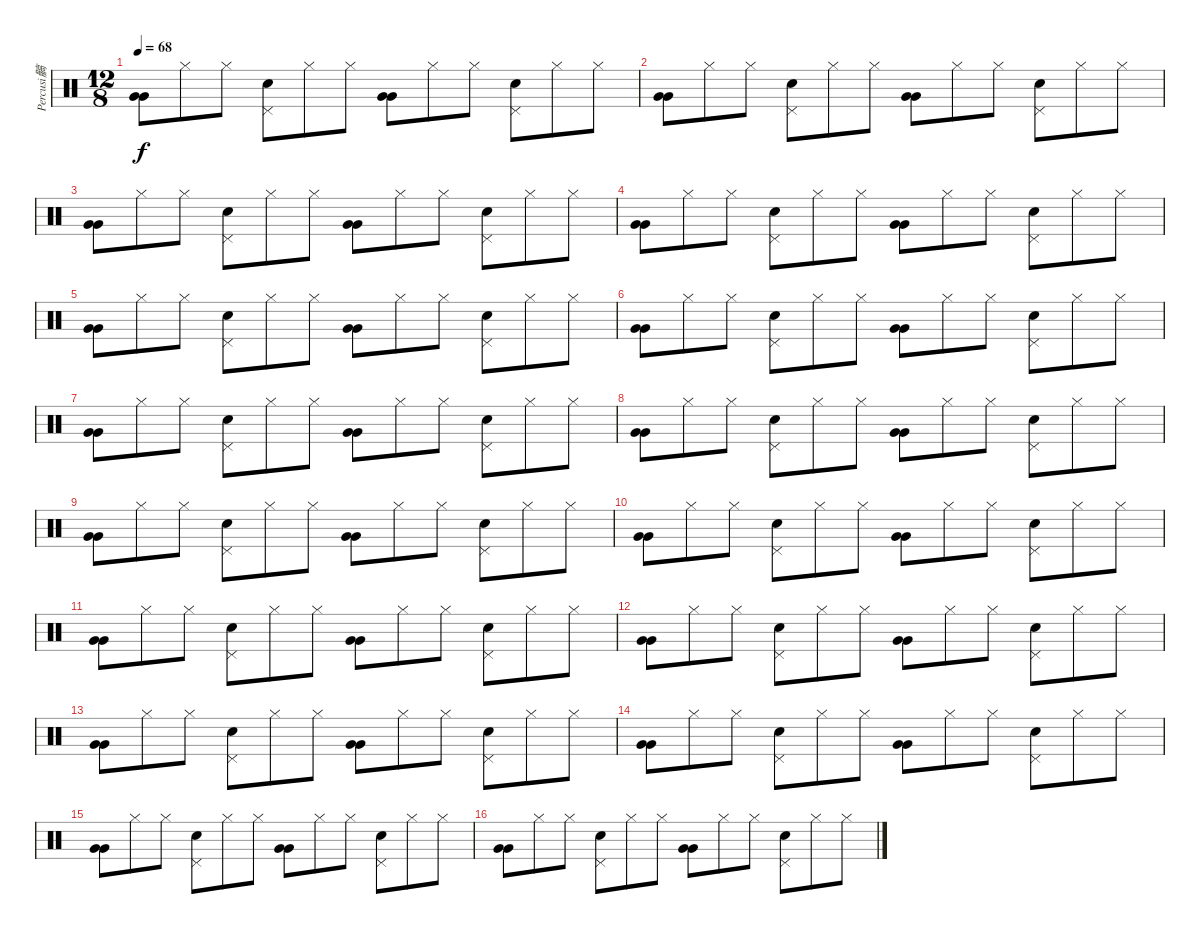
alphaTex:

\track ("Percusi髇" "Percusi髇") {instrument percussion}
\staff {score}
\articulation defaults
\ts (12 8)
\tempo 68
\clef neutral
\ks c
("Very Low Tom (hit)" "Very Low Tom (hit)").8{dy f} "Hi-Hat (closed)".8 "Hi-Hat (closed)".8 ("Pedal Hi-Hat (hit)" "Electric Snare (hit)").8 "Hi-Hat (closed)".8 "Hi-Hat (closed)".8 ("Very Low Tom (hit)" "Very Low Tom (hit)").8 "Hi-Hat (closed)".8 "Hi-Hat (closed)".8 ("Pedal Hi-Hat (hit)" "Electric Snare (hit)").8 "Hi-Hat (closed)".8 "Hi-Hat (closed)".8 |
("Very Low Tom (hit)" "Very Low Tom (hit)").8 "Hi-Hat (closed)".8 "Hi-Hat (closed)".8 ("Pedal Hi-Hat (hit)" "Electric Snare (hit)").8 "Hi-Hat (closed)".8 "Hi-Hat (closed)".8 ("Very Low Tom (hit)" "Very Low Tom (hit)").8 "Hi-Hat (closed)".8 "Hi-Hat (closed)".8 ("Pedal Hi-Hat (hit)" "Electric Snare (hit)").8 "Hi-Hat (closed)".8 "Hi-Hat (closed)".8 |
("Very Low Tom (hit)" "Very Low Tom (hit)").8 "Hi-Hat (closed)".8 "Hi-Hat (closed)".8 ("Pedal Hi-Hat (hit)" "Electric Snare (hit)").8 "Hi-Hat (closed)".8 "Hi-Hat (closed)".8 ("Very Low Tom (hit)" "Very Low Tom (hit)").8 "Hi-Hat (closed)".8 "Hi-Hat (closed)".8 ("Pedal Hi-Hat (hit)" "Electric Snare (hit)").8 "Hi-Hat (closed)".8 "Hi-Hat (closed)".8 |
("Very Low Tom (hit)" "Very Low Tom (hit)").8 "Hi-Hat (closed)".8 "Hi-Hat (closed)".8 ("Pedal Hi-Hat (hit)" "Electric Snare (hit)").8 "Hi-Hat (closed)".8 "Hi-Hat (closed)".8 ("Very Low Tom (hit)" "Very Low Tom (hit)").8 "Hi-Hat (closed)".8 "Hi-Hat (closed)".8 ("Pedal Hi-Hat (hit)" "Electric Snare (hit)").8 "Hi-Hat (closed)".8 "Hi-Hat (closed)".8 |
("Very Low Tom (hit)" "Very Low Tom (hit)").8 "Hi-Hat (closed)".8 "Hi-Hat (closed)".8 ("Pedal Hi-Hat (hit)" "Electric Snare (hit)").8 "Hi-Hat (closed)".8 "Hi-Hat (closed)".8 ("Very Low Tom (hit)" "Very Low Tom (hit)").8 "Hi-Hat (closed)".8 "Hi-Hat (closed)".8 ("Pedal Hi-Hat (hit)" "Electric Snare (hit)").8 "Hi-Hat (closed)".8 "Hi-Hat (closed)".8 |
("Very Low Tom (hit)" "Very Low Tom (hit)").8 "Hi-Hat (closed)".8 "Hi-Hat (closed)".8 ("Pedal Hi-Hat (hit)" "Electric Snare (hit)").8 "Hi-Hat (closed)".8 "Hi-Hat (closed)".8 ("Very Low Tom (hit)" "Very Low Tom (hit)").8 "Hi-Hat (closed)".8 "Hi-Hat (closed)".8 ("Pedal Hi-Hat (hit)" "Electric Snare (hit)").8 "Hi-Hat (closed)".8 "Hi-Hat (closed)".8 |
("Very Low Tom (hit)" "Very Low Tom (hit)").8 "Hi-Hat (closed)".8 "Hi-Hat (closed)".8 ("Pedal Hi-Hat (hit)" "Electric Snare (hit)").8 "Hi-Hat (closed)".8 "Hi-Hat (closed)".8 ("Very Low Tom (hit)" "Very Low Tom (hit)").8 "Hi-Hat (closed)".8 "Hi-Hat (closed)".8 ("Pedal Hi-Hat (hit)" "Electric Snare (hit)").8 "Hi-Hat (closed)".8 "Hi-Hat (closed)".8 |
("Very Low Tom (hit)" "Very Low Tom (hit)").8 "Hi-Hat (closed)".8 "Hi-Hat (closed)".8 ("Pedal Hi-Hat (hit)" "Electric Snare (hit)").8 "Hi-Hat (closed)".8 "Hi-Hat (closed)".8 ("Very Low Tom (hit)" "Very Low Tom (hit)").8 "Hi-Hat (closed)".8 "Hi-Hat (closed)".8 ("Pedal Hi-Hat (hit)" "Electric Snare (hit)").8 "Hi-Hat (closed)".8 "Hi-Hat (closed)".8 |
("Very Low Tom (hit)" "Very Low Tom (hit)").8 "Hi-Hat (closed)".8 "Hi-Hat (closed)".8 ("Pedal Hi-Hat (hit)" "Electric Snare (hit)").8 "Hi-Hat (closed)".8 "Hi-Hat (closed)".8 ("Very Low Tom (hit)" "Very Low Tom (hit)").8 "Hi-Hat (closed)".8 "Hi-Hat (closed)".8 ("Pedal Hi-Hat (hit)" "Electric Snare (hit)").8 "Hi-Hat (closed)".8 "Hi-Hat (closed)".8 |
("Very Low Tom (hit)" "Very Low Tom (hit)").8 "Hi-Hat (closed)".8 "Hi-Hat (closed)".8 ("Pedal Hi-Hat (hit)" "Electric Snare (hit)").8 "Hi-Hat (closed)".8 "Hi-Hat (closed)".8 ("Very Low Tom (hit)" "Very Low Tom (hit)").8 "Hi-Hat (closed)".8 "Hi-Hat (closed)".8 ("Pedal Hi-Hat (hit)" "Electric Snare (hit)").8 "Hi-Hat (closed)".8 "Hi-Hat (closed)".8 |
("Very Low Tom (hit)" "Very Low Tom (hit)").8 "Hi-Hat (closed)".8 "Hi-Hat (closed)".8 ("Pedal Hi-Hat (hit)" "Electric Snare (hit)").8 "Hi-Hat (closed)".8 "Hi-Hat (closed)".8 ("Very Low Tom (hit)" "Very Low Tom (hit)").8 "Hi-Hat (closed)".8 "Hi-Hat (closed)".8 ("Pedal Hi-Hat (hit)" "Electric Snare (hit)").8 "Hi-Hat (closed)".8 "Hi-Hat (closed)".8 |
("Very Low Tom (hit)" "Very Low Tom (hit)").8 "Hi-Hat (closed)".8 "Hi-Hat (closed)".8 ("Pedal Hi-Hat (hit)" "Electric Snare (hit)").8 "Hi-Hat (closed)".8 "Hi-Hat (closed)".8 ("Very Low Tom (hit)" "Very Low Tom (hit)").8 "Hi-Hat (closed)".8 "Hi-Hat (closed)".8 ("Pedal Hi-Hat (hit)" "Electric Snare (hit)").8 "Hi-Hat (closed)".8 "Hi-Hat (closed)".8 |
("Very Low Tom (hit)" "Very Low Tom (hit)").8 "Hi-Hat (closed)".8 "Hi-Hat (closed)".8 ("Pedal Hi-Hat (hit)" "Electric Snare (hit)").8 "Hi-Hat (closed)".8 "Hi-Hat (closed)".8 ("Very Low Tom (hit)" "Very Low Tom (hit)").8 "Hi-Hat (closed)".8 "Hi-Hat (closed)".8 ("Pedal Hi-Hat (hit)" "Electric Snare (hit)").8 "Hi-Hat (closed)".8 "Hi-Hat (closed)".8 |
("Very Low Tom (hit)" "Very Low Tom (hit)").8 "Hi-Hat (closed)".8 "Hi-Hat (closed)".8 ("Pedal Hi-Hat (hit)" "Electric Snare (hit)").8 "Hi-Hat (closed)".8 "Hi-Hat (closed)".8 ("Very Low Tom (hit)" "Very Low Tom (hit)").8 "Hi-Hat (closed)".8 "Hi-Hat (closed)".8 ("Pedal Hi-Hat (hit)" "Electric Snare (hit)").8 "Hi-Hat (closed)".8 "Hi-Hat (closed)".8 |
("Very Low Tom (hit)" "Very Low Tom (hit)").8 "Hi-Hat (closed)".8 "Hi-Hat (closed)".8 ("Pedal Hi-Hat (hit)" "Electric Snare (hit)").8 "Hi-Hat (closed)".8 "Hi-Hat (closed)".8 ("Very Low Tom (hit)" "Very Low Tom (hit)").8 "Hi-Hat (closed)".8 "Hi-Hat (closed)".8 ("Pedal Hi-Hat (hit)" "Electric Snare (hit)").8 "Hi-Hat (closed)".8 "Hi-Hat (closed)".8 |
("Very Low Tom (hit)" "Very Low Tom (hit)").8 "Hi-Hat (closed)".8 "Hi-Hat (closed)".8 ("Pedal Hi-Hat (hit)" "Electric Snare (hit)").8 "Hi-Hat (closed)".8 "Hi-Hat (closed)".8 ("Very Low Tom (hit)" "Very Low Tom (hit)").8 "Hi-Hat (closed)".8 "Hi-Hat (closed)".8 ("Pedal Hi-Hat (hit)" "Electric Snare (hit)").8 "Hi-Hat (closed)".8 "Hi-Hat (closed)".8
